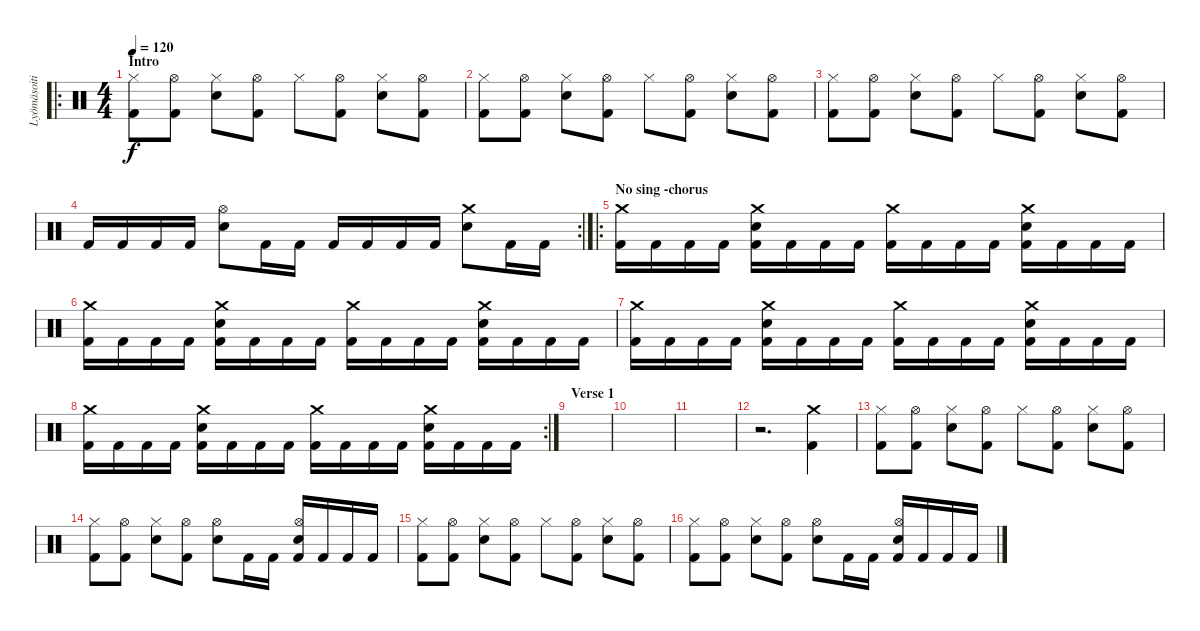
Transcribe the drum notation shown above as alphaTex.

\track ("Lyömäsoitin" "Lyömäsoiti") {instrument percussion}
\staff {score}
\articulation defaults
\ro
\ts (4 4)
\section ("" "Intro")
\tempo 120
\clef neutral
\ks c
("Hi-Hat (closed)" "Kick (hit) 2").8{dy f} ("Hi-Hat (open)" "Kick (hit) 2").8 ("Hi-Hat (closed)" "Electric Snare (hit)").8 ("Hi-Hat (open)" "Kick (hit) 2").8 "Hi-Hat (closed)".8 ("Hi-Hat (open)" "Kick (hit) 2").8 ("Hi-Hat (closed)" "Electric Snare (hit)").8 ("Hi-Hat (open)" "Kick (hit) 2").8 |
("Hi-Hat (closed)" "Kick (hit) 2").8 ("Hi-Hat (open)" "Kick (hit) 2").8 ("Hi-Hat (closed)" "Electric Snare (hit)").8 ("Hi-Hat (open)" "Kick (hit) 2").8 "Hi-Hat (closed)".8 ("Hi-Hat (open)" "Kick (hit) 2").8 ("Hi-Hat (closed)" "Electric Snare (hit)").8 ("Hi-Hat (open)" "Kick (hit) 2").8 |
("Hi-Hat (closed)" "Kick (hit) 2").8 ("Hi-Hat (open)" "Kick (hit) 2").8 ("Hi-Hat (closed)" "Electric Snare (hit)").8 ("Hi-Hat (open)" "Kick (hit) 2").8 "Hi-Hat (closed)".8 ("Hi-Hat (open)" "Kick (hit) 2").8 ("Hi-Hat (closed)" "Electric Snare (hit)").8 ("Hi-Hat (open)" "Kick (hit) 2").8 |
\rc 2 "Kick (hit) 2".16 "Kick (hit) 2".16 "Kick (hit) 2".16 "Kick (hit) 2".16
("Hi-Hat (open)" "Electric Snare (hit)").8 "Kick (hit) 2".16 "Kick (hit) 2".16 "Kick (hit) 2".16 "Kick (hit) 2".16 "Kick (hit) 2".16 "Kick (hit) 2".16 ("Crash medium (hit)" "Electric Snare (hit)").8 "Kick (hit) 2".16 "Kick (hit) 2".16 |
\ro
\section ("" "No sing -chorus")
("Crash medium (hit)" "Kick (hit) 2").16 "Kick (hit) 2".16 "Kick (hit) 2".16 "Kick (hit) 2".16 ("Crash medium (hit)" "Electric Snare (hit)" "Kick (hit) 2").16 "Kick (hit) 2".16 "Kick (hit) 2".16 "Kick (hit) 2".16 ("Crash medium (hit)" "Kick (hit) 2").16 "Kick (hit) 2".16 "Kick (hit) 2".16 "Kick (hit) 2".16 ("Crash medium (hit)" "Electric Snare (hit)" "Kick (hit) 2").16 "Kick (hit) 2".16 "Kick (hit) 2".16 "Kick (hit) 2".16 |
("Crash medium (hit)" "Kick (hit) 2").16 "Kick (hit) 2".16 "Kick (hit) 2".16 "Kick (hit) 2".16 ("Crash medium (hit)" "Electric Snare (hit)" "Kick (hit) 2").16 "Kick (hit) 2".16 "Kick (hit) 2".16 "Kick (hit) 2".16 ("Crash medium (hit)" "Kick (hit) 2").16 "Kick (hit) 2".16 "Kick (hit) 2".16 "Kick (hit) 2".16 ("Crash medium (hit)" "Electric Snare (hit)" "Kick (hit) 2").16 "Kick (hit) 2".16 "Kick (hit) 2".16 "Kick (hit) 2".16 |
("Crash medium (hit)" "Kick (hit) 2").16 "Kick (hit) 2".16 "Kick (hit) 2".16 "Kick (hit) 2".16 ("Crash medium (hit)" "Electric Snare (hit)" "Kick (hit) 2").16 "Kick (hit) 2".16 "Kick (hit) 2".16 "Kick (hit) 2".16 ("Crash medium (hit)" "Kick (hit) 2").16 "Kick (hit) 2".16 "Kick (hit) 2".16 "Kick (hit) 2".16 ("Crash medium (hit)" "Electric Snare (hit)" "Kick (hit) 2").16 "Kick (hit) 2".16 "Kick (hit) 2".16 "Kick (hit) 2".16 |
\rc 2
("Crash medium (hit)" "Kick (hit) 2").16 "Kick (hit) 2".16 "Kick (hit) 2".16 "Kick (hit) 2".16 ("Crash medium (hit)" "Electric Snare (hit)" "Kick (hit) 2").16 "Kick (hit) 2".16 "Kick (hit) 2".16 "Kick (hit) 2".16 ("Crash medium (hit)" "Kick (hit) 2").16 "Kick (hit) 2".16 "Kick (hit) 2".16 "Kick (hit) 2".16 ("Crash medium (hit)" "Electric Snare (hit)" "Kick (hit) 2").16 "Kick (hit) 2".16 "Kick (hit) 2".16 "Kick (hit) 2".16 |
\section ("" "Verse 1")
|
|
|
r.2{d} ("Crash medium (hit)" "Kick (hit) 2").4 |
("Hi-Hat (closed)" "Kick (hit) 2").8 ("Hi-Hat (open)" "Kick (hit) 2").8 ("Hi-Hat (closed)" "Electric Snare (hit)").8 ("Hi-Hat (open)" "Kick (hit) 2").8 "Hi-Hat (closed)".8 ("Hi-Hat (open)" "Kick (hit) 2").8 ("Hi-Hat (closed)" "Electric Snare (hit)").8 ("Hi-Hat (open)" "Kick (hit) 2").8 |
("Hi-Hat (closed)" "Kick (hit) 2").8 ("Hi-Hat (open)" "Kick (hit) 2").8 ("Hi-Hat (closed)" "Electric Snare (hit)").8 ("Hi-Hat (open)" "Kick (hit) 2").8 ("Hi-Hat (open)" "Electric Snare (hit)").8 "Kick (hit) 2".16 "Kick (hit) 2".16 ("Hi-Hat (open)" "Electric Snare (hit)" "Kick (hit) 2").16 "Kick (hit) 2".16 "Kick (hit) 2".16 "Kick (hit) 2".16 |
("Hi-Hat (closed)" "Kick (hit) 2").8 ("Hi-Hat (open)" "Kick (hit) 2").8 ("Hi-Hat (closed)" "Electric Snare (hit)").8 ("Hi-Hat (open)" "Kick (hit) 2").8 "Hi-Hat (closed)".8 ("Hi-Hat (open)" "Kick (hit) 2").8 ("Hi-Hat (closed)" "Electric Snare (hit)").8 ("Hi-Hat (open)" "Kick (hit) 2").8 |
("Hi-Hat (closed)" "Kick (hit) 2").8 ("Hi-Hat (open)" "Kick (hit) 2").8 ("Hi-Hat (closed)" "Electric Snare (hit)").8 ("Hi-Hat (open)" "Kick (hit) 2").8 ("Hi-Hat (open)" "Electric Snare (hit)").8 "Kick (hit) 2".16 "Kick (hit) 2".16 ("Hi-Hat (open)" "Electric Snare (hit)" "Kick (hit) 2").16 "Kick (hit) 2".16 "Kick (hit) 2".16 "Kick (hit) 2".16
